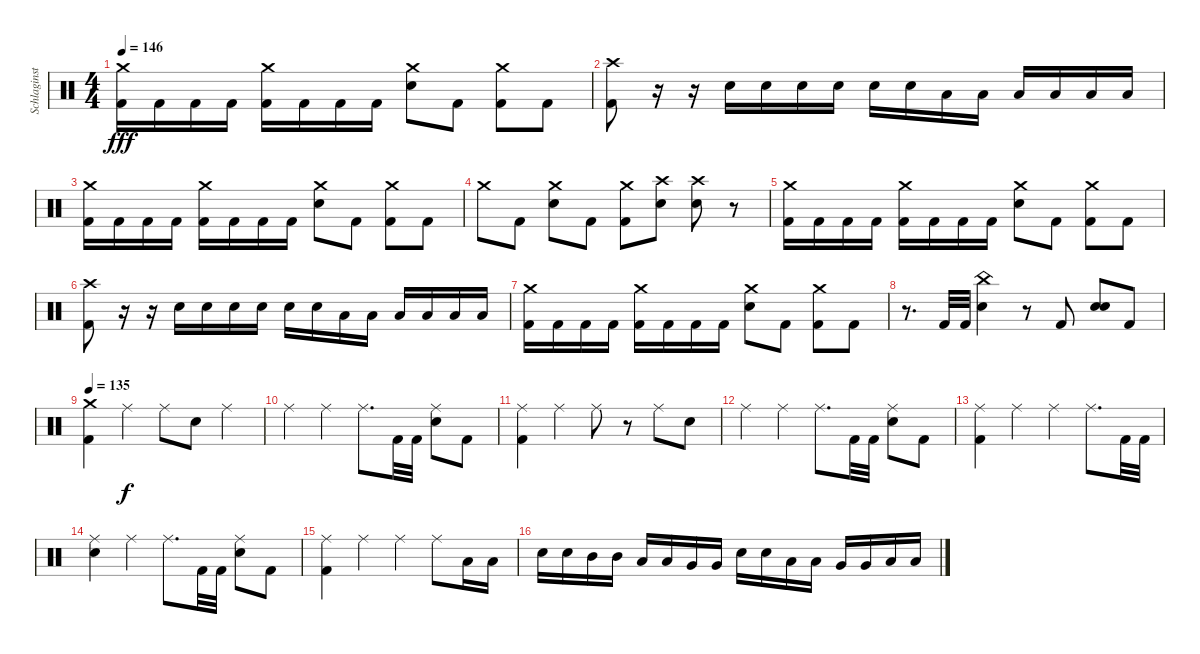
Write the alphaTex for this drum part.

\track ("Schlaginstrumente - Auswahl" "Schlaginst") {instrument percussion}
\staff {score}
\articulation defaults
\ts (4 4)
\tempo 146
\clef neutral
\ks c
("Crash medium (hit)" "Kick (hit) 2").16{dy fff} "Kick (hit) 2".16 "Kick (hit) 2".16 "Kick (hit) 2".16 ("Crash medium (hit)" "Kick (hit) 2").16 "Kick (hit) 2".16 "Kick (hit) 2".16 "Kick (hit) 2".16 ("Crash medium (hit)" "Electric Snare (hit)").8 "Kick (hit) 2".8 ("Crash medium (hit)" "Kick (hit) 2").8 "Kick (hit) 2".8 |
("Crash high (hit)" "Kick (hit) 2").8 r.16 r.16 "Electric Snare (hit)".16 "Electric Snare (hit)".16 "Electric Snare (hit)".16 "Electric Snare (hit)".16 "Electric Snare (hit)".16 "Electric Snare (hit)".16 "Low Tom (hit)".16 "Low Tom (hit)".16 "Low Tom (hit)".16 "Low Tom (hit)".16 "Low Tom (hit)".16 "Low Tom (hit)".16 |
("Crash medium (hit)" "Kick (hit) 2").16 "Kick (hit) 2".16 "Kick (hit) 2".16 "Kick (hit) 2".16 ("Crash medium (hit)" "Kick (hit) 2").16 "Kick (hit) 2".16 "Kick (hit) 2".16 "Kick (hit) 2".16 ("Crash medium (hit)" "Electric Snare (hit)").8 "Kick (hit) 2".8 ("Crash medium (hit)" "Kick (hit) 2").8 "Kick (hit) 2".8 |
"Crash medium (hit)".8 "Kick (hit) 2".8 ("Crash medium (hit)" "Electric Snare (hit)").8 "Kick (hit) 2".8 ("Crash medium (hit)" "Kick (hit) 2").8 ("Crash high (hit)" "Electric Snare (hit)").8 ("Crash high (hit)" "Electric Snare (hit)").8 r.8 |
("Crash medium (hit)" "Kick (hit) 2").16 "Kick (hit) 2".16 "Kick (hit) 2".16 "Kick (hit) 2".16 ("Crash medium (hit)" "Kick (hit) 2").16 "Kick (hit) 2".16 "Kick (hit) 2".16 "Kick (hit) 2".16 ("Crash medium (hit)" "Electric Snare (hit)").8 "Kick (hit) 2".8 ("Crash medium (hit)" "Kick (hit) 2").8 "Kick (hit) 2".8 |
("Crash high (hit)" "Kick (hit) 2").8 r.16 r.16 "Electric Snare (hit)".16 "Electric Snare (hit)".16 "Electric Snare (hit)".16 "Electric Snare (hit)".16 "Electric Snare (hit)".16 "Electric Snare (hit)".16 "Low Tom (hit)".16 "Low Tom (hit)".16 "Low Tom (hit)".16 "Low Tom (hit)".16 "Low Tom (hit)".16 "Low Tom (hit)".16 |
("Crash medium (hit)" "Kick (hit) 2").16 "Kick (hit) 2".16 "Kick (hit) 2".16 "Kick (hit) 2".16 ("Crash medium (hit)" "Kick (hit) 2").16 "Kick (hit) 2".16 "Kick (hit) 2".16 "Kick (hit) 2".16 ("Crash medium (hit)" "Electric Snare (hit)").8 "Kick (hit) 2".8 ("Crash medium (hit)" "Kick (hit) 2").8 "Kick (hit) 2".8 |
r.8{d} "Kick (hit) 2".32 "Kick (hit) 2".32 ("Electric Snare (hit)" "China (hit)").4 r.8 "Kick (hit) 2".8 ("Electric Snare (hit)" "Electric Snare (hit)").8 "Kick (hit) 2".8 |
\tempo 135
("Crash medium (hit)" "Kick (hit) 2").4 "Ride (middle)".4{dy f} "Ride (middle)".8 "Electric Snare (hit)".8 "Ride (middle)".4 |
"Ride (middle)".4 "Ride (middle)".4 "Ride (middle)".8{d} "Kick (hit) 2".32 "Kick (hit) 2".32 ("Ride (middle)" "Electric Snare (hit)").8 "Kick (hit) 2".8 |
("Ride (middle)" "Kick (hit) 2").4 "Ride (middle)".4 "Ride (middle)".8 r.8 "Ride (middle)".8 "Electric Snare (hit)".8 |
"Ride (middle)".4 "Ride (middle)".4 "Ride (middle)".8{d} "Kick (hit) 2".32 "Kick (hit) 2".32 ("Ride (middle)" "Electric Snare (hit)").8 "Kick (hit) 2".8 |
("Ride (middle)" "Kick (hit) 2").4 "Ride (middle)".4 "Ride (middle)".4 "Ride (middle)".8{d} "Kick (hit) 2".32 "Kick (hit) 2".32 |
("Ride (middle)" "Electric Snare (hit)").4 "Ride (middle)".4 "Ride (middle)".8{d} "Kick (hit) 2".32 "Kick (hit) 2".32 ("Ride (middle)" "Electric Snare (hit)").8 "Kick (hit) 2".8 |
("Ride (middle)" "Kick (hit) 2").4 "Ride (middle)".4 "Ride (middle)".4 "Ride (middle)".8 "Low Tom (hit)".16 "Low Tom (hit)".16 |
"Electric Snare (hit)".16 "Electric Snare (hit)".16 "Mid Tom (hit)".16 "Mid Tom (hit)".16 "Low Tom (hit)".16 "Low Tom (hit)".16 "Very Low Tom (hit)".16 "Very Low Tom (hit)".16 "Electric Snare (hit)".16 "Electric Snare (hit)".16 "Low Tom (hit)".16 "Low Tom (hit)".16 "Very Low Tom (hit)".16 "Very Low Tom (hit)".16 "Low Tom (hit)".16 "Low Tom (hit)".16
